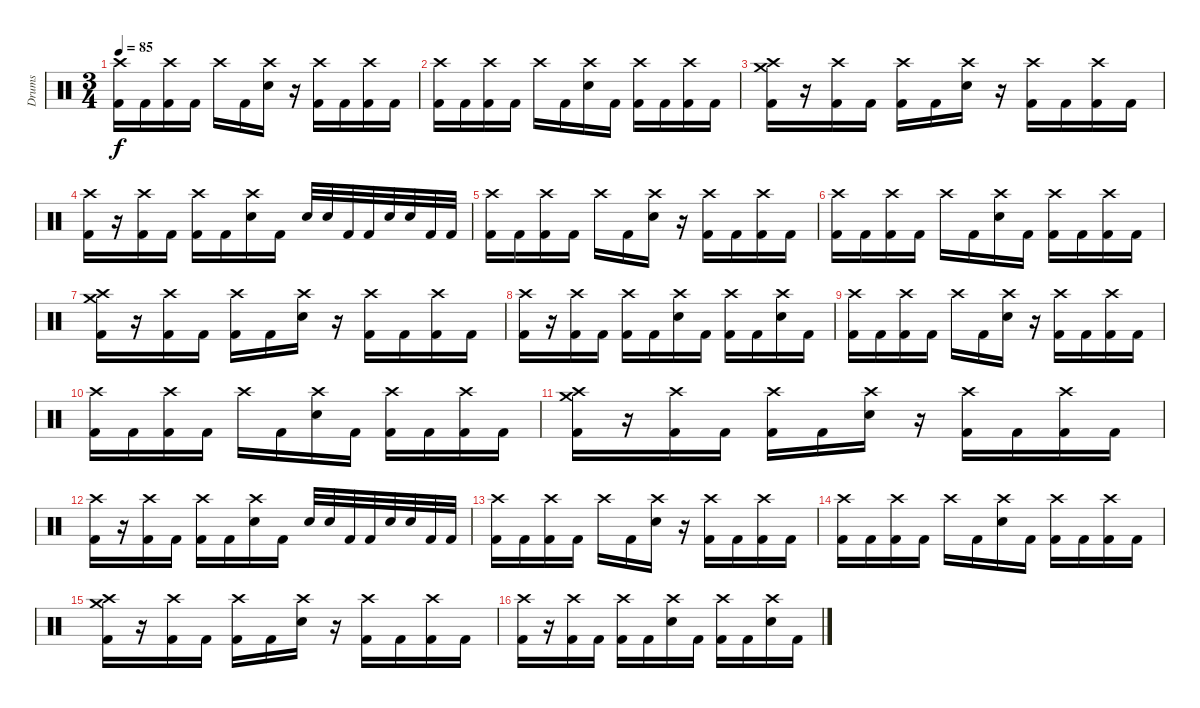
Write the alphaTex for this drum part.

\track ("Drums" "Drums") {instrument percussion}
\staff {score}
\articulation defaults
\ts (3 4)
\tempo 85
\clef neutral
\ks c
("Crash high (hit)" "Kick (hit) 2").16{dy f} "Kick (hit) 2".16 ("Crash high (hit)" "Kick (hit) 2").16 "Kick (hit) 2".16 "Crash high (hit)".16 "Kick (hit) 2".16 ("Crash high (hit)" "Electric Snare (hit)").16 r.16 ("Crash high (hit)" "Kick (hit) 2").16 "Kick (hit) 2".16 ("Crash high (hit)" "Kick (hit) 2").16 "Kick (hit) 2".16 |
("Crash high (hit)" "Kick (hit) 2").16 "Kick (hit) 2".16 ("Crash high (hit)" "Kick (hit) 2").16 "Kick (hit) 2".16 "Crash high (hit)".16 "Kick (hit) 2".16 ("Crash high (hit)" "Electric Snare (hit)").16 "Kick (hit) 2".16 ("Crash high (hit)" "Kick (hit) 2").16 "Kick (hit) 2".16 ("Crash high (hit)" "Kick (hit) 2").16 "Kick (hit) 2".16 |
("Crash high (hit)" "Crash medium (hit)" "Kick (hit) 2").16 r.16 ("Crash high (hit)" "Kick (hit) 2").16 "Kick (hit) 2".16 ("Crash high (hit)" "Kick (hit) 2").16 "Kick (hit) 2".16 ("Crash high (hit)" "Electric Snare (hit)").16 r.16 ("Crash high (hit)" "Kick (hit) 2").16 "Kick (hit) 2".16 ("Crash high (hit)" "Kick (hit) 2").16 "Kick (hit) 2".16 |
("Crash high (hit)" "Kick (hit) 2").16 r.16 ("Crash high (hit)" "Kick (hit) 2").16 "Kick (hit) 2".16 ("Crash high (hit)" "Kick (hit) 2").16 "Kick (hit) 2".16 ("Crash high (hit)" "Electric Snare (hit)").16 "Kick (hit) 2".16 "Electric Snare (hit)".32 "Electric Snare (hit)".32 "Kick (hit) 2".32 "Kick (hit) 2".32 "Electric Snare (hit)".32 "Electric Snare (hit)".32 "Kick (hit) 2".32 "Kick (hit) 2".32 |
("Crash high (hit)" "Kick (hit) 2").16 "Kick (hit) 2".16 ("Crash high (hit)" "Kick (hit) 2").16 "Kick (hit) 2".16 "Crash high (hit)".16 "Kick (hit) 2".16 ("Crash high (hit)" "Electric Snare (hit)").16 r.16 ("Crash high (hit)" "Kick (hit) 2").16 "Kick (hit) 2".16 ("Crash high (hit)" "Kick (hit) 2").16 "Kick (hit) 2".16 |
("Crash high (hit)" "Kick (hit) 2").16 "Kick (hit) 2".16 ("Crash high (hit)" "Kick (hit) 2").16 "Kick (hit) 2".16 "Crash high (hit)".16 "Kick (hit) 2".16 ("Crash high (hit)" "Electric Snare (hit)").16 "Kick (hit) 2".16 ("Crash high (hit)" "Kick (hit) 2").16 "Kick (hit) 2".16 ("Crash high (hit)" "Kick (hit) 2").16 "Kick (hit) 2".16 |
("Crash high (hit)" "Crash medium (hit)" "Kick (hit) 2").16 r.16 ("Crash high (hit)" "Kick (hit) 2").16 "Kick (hit) 2".16 ("Crash high (hit)" "Kick (hit) 2").16 "Kick (hit) 2".16 ("Crash high (hit)" "Electric Snare (hit)").16 r.16 ("Crash high (hit)" "Kick (hit) 2").16 "Kick (hit) 2".16 ("Crash high (hit)" "Kick (hit) 2").16 "Kick (hit) 2".16 |
("Crash high (hit)" "Kick (hit) 2").16 r.16 ("Crash high (hit)" "Kick (hit) 2").16 "Kick (hit) 2".16 ("Crash high (hit)" "Kick (hit) 2").16 "Kick (hit) 2".16 ("Crash high (hit)" "Electric Snare (hit)").16 "Kick (hit) 2".16 ("Crash high (hit)" "Kick (hit) 2").16 "Kick (hit) 2".16 ("Crash high (hit)" "Electric Snare (hit)").16 "Kick (hit) 2".16 |
("Crash high (hit)" "Kick (hit) 2").16 "Kick (hit) 2".16 ("Crash high (hit)" "Kick (hit) 2").16 "Kick (hit) 2".16 "Crash high (hit)".16 "Kick (hit) 2".16 ("Crash high (hit)" "Electric Snare (hit)").16 r.16 ("Crash high (hit)" "Kick (hit) 2").16 "Kick (hit) 2".16 ("Crash high (hit)" "Kick (hit) 2").16 "Kick (hit) 2".16 |
("Crash high (hit)" "Kick (hit) 2").16 "Kick (hit) 2".16 ("Crash high (hit)" "Kick (hit) 2").16 "Kick (hit) 2".16 "Crash high (hit)".16 "Kick (hit) 2".16 ("Crash high (hit)" "Electric Snare (hit)").16 "Kick (hit) 2".16 ("Crash high (hit)" "Kick (hit) 2").16 "Kick (hit) 2".16 ("Crash high (hit)" "Kick (hit) 2").16 "Kick (hit) 2".16 |
("Crash high (hit)" "Crash medium (hit)" "Kick (hit) 2").16 r.16 ("Crash high (hit)" "Kick (hit) 2").16 "Kick (hit) 2".16 ("Crash high (hit)" "Kick (hit) 2").16 "Kick (hit) 2".16 ("Crash high (hit)" "Electric Snare (hit)").16 r.16 ("Crash high (hit)" "Kick (hit) 2").16 "Kick (hit) 2".16 ("Crash high (hit)" "Kick (hit) 2").16 "Kick (hit) 2".16 |
("Crash high (hit)" "Kick (hit) 2").16 r.16 ("Crash high (hit)" "Kick (hit) 2").16 "Kick (hit) 2".16 ("Crash high (hit)" "Kick (hit) 2").16 "Kick (hit) 2".16 ("Crash high (hit)" "Electric Snare (hit)").16 "Kick (hit) 2".16 "Electric Snare (hit)".32 "Electric Snare (hit)".32 "Kick (hit) 2".32 "Kick (hit) 2".32 "Electric Snare (hit)".32 "Electric Snare (hit)".32 "Kick (hit) 2".32 "Kick (hit) 2".32 |
("Crash high (hit)" "Kick (hit) 2").16 "Kick (hit) 2".16 ("Crash high (hit)" "Kick (hit) 2").16 "Kick (hit) 2".16 "Crash high (hit)".16 "Kick (hit) 2".16 ("Crash high (hit)" "Electric Snare (hit)").16 r.16 ("Crash high (hit)" "Kick (hit) 2").16 "Kick (hit) 2".16 ("Crash high (hit)" "Kick (hit) 2").16 "Kick (hit) 2".16 |
("Crash high (hit)" "Kick (hit) 2").16 "Kick (hit) 2".16 ("Crash high (hit)" "Kick (hit) 2").16 "Kick (hit) 2".16 "Crash high (hit)".16 "Kick (hit) 2".16 ("Crash high (hit)" "Electric Snare (hit)").16 "Kick (hit) 2".16 ("Crash high (hit)" "Kick (hit) 2").16 "Kick (hit) 2".16 ("Crash high (hit)" "Kick (hit) 2").16 "Kick (hit) 2".16 |
("Crash high (hit)" "Crash medium (hit)" "Kick (hit) 2").16 r.16 ("Crash high (hit)" "Kick (hit) 2").16 "Kick (hit) 2".16 ("Crash high (hit)" "Kick (hit) 2").16 "Kick (hit) 2".16 ("Crash high (hit)" "Electric Snare (hit)").16 r.16 ("Crash high (hit)" "Kick (hit) 2").16 "Kick (hit) 2".16 ("Crash high (hit)" "Kick (hit) 2").16 "Kick (hit) 2".16 |
("Crash high (hit)" "Kick (hit) 2").16 r.16 ("Crash high (hit)" "Kick (hit) 2").16 "Kick (hit) 2".16 ("Crash high (hit)" "Kick (hit) 2").16 "Kick (hit) 2".16 ("Crash high (hit)" "Electric Snare (hit)").16 "Kick (hit) 2".16 ("Crash high (hit)" "Kick (hit) 2").16 "Kick (hit) 2".16 ("Crash high (hit)" "Electric Snare (hit)").16 "Kick (hit) 2".16
